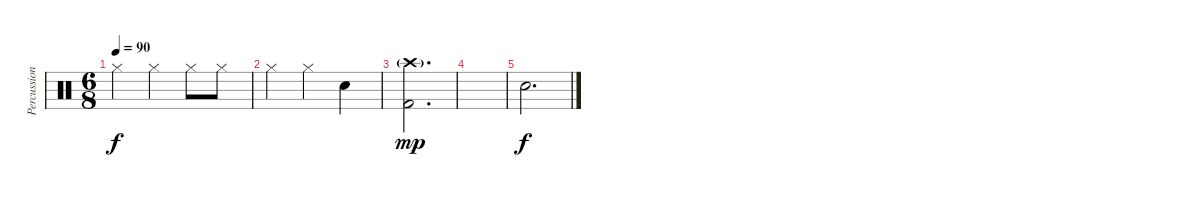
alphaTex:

\track ("Percussion" "Percussion") {instrument percussion}
\staff {score}
\articulation defaults
\ts (6 8)
\tempo 90
\clef neutral
\ks c "Hi-Hat (closed)".4{dy f} "Hi-Hat (closed)".4 "Hi-Hat (closed)".8 "Hi-Hat (closed)".8
|
"Hi-Hat (closed)".4 "Hi-Hat (closed)".4 "Snare (hit) 2".4 |
("Crash high (hit)"{g} "Kick (hit) 2").2{d dy mp} |
|
"Snare (hit) 2".2{d dy f}
